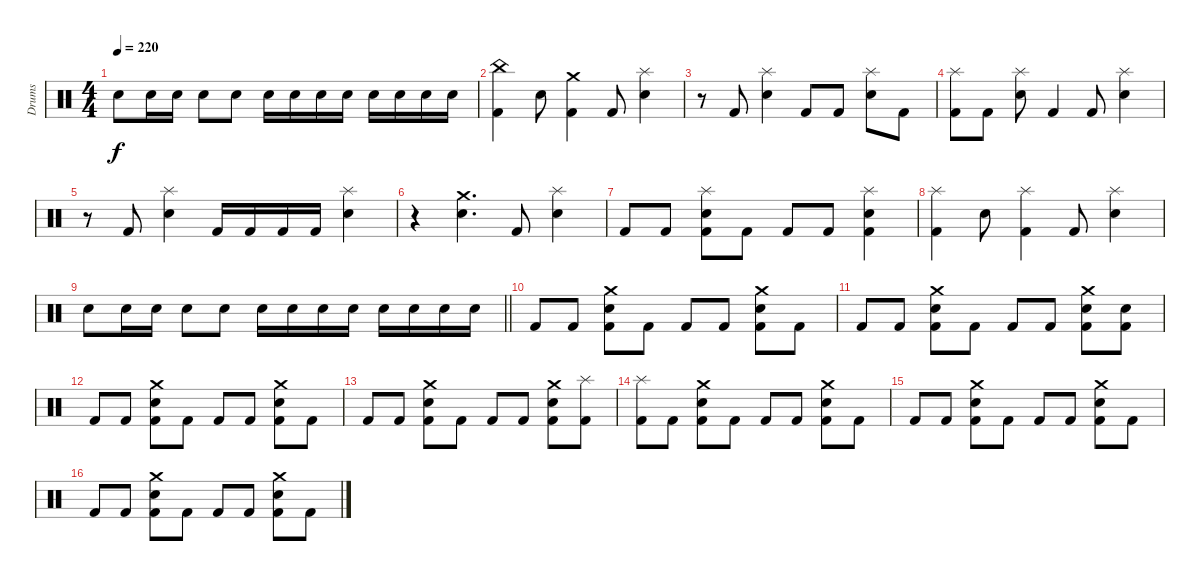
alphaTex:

\track ("Drums" "Drums") {instrument percussion}
\staff {score}
\articulation defaults
\ts (4 4)
\tempo 220
\clef neutral
\ks c "Electric Snare (hit)".8{dy f} "Electric Snare (hit)".16 "Electric Snare (hit)".16 "Electric Snare (hit)".8 "Electric Snare (hit)".8 "Electric Snare (hit)".16 "Electric Snare (hit)".16 "Electric Snare (hit)".16 "Electric Snare (hit)".16 "Electric Snare (hit)".16 "Electric Snare (hit)".16 "Electric Snare (hit)".16 "Electric Snare (hit)".16
|
("China (hit)" "Kick (hit) 2").4 "Electric Snare (hit)".8 ("Crash medium (hit)" "Kick (hit) 2").4 "Kick (hit) 2".8 ("Splash (hit)" "Electric Snare (hit)").4 |
r.8 "Kick (hit) 2".8 ("Splash (hit)" "Electric Snare (hit)").4 "Kick (hit) 2".8 "Kick (hit) 2".8 ("Splash (hit)" "Electric Snare (hit)").8 "Kick (hit) 2".8 |
("Splash (hit)" "Kick (hit) 2").8 "Kick (hit) 2".8 ("Splash (hit)" "Electric Snare (hit)").8 "Kick (hit) 2".4 "Kick (hit) 2".8 ("Splash (hit)" "Electric Snare (hit)").4 |
r.8 "Kick (hit) 2".8 ("Splash (hit)" "Electric Snare (hit)").4 "Kick (hit) 2".16 "Kick (hit) 2".16 "Kick (hit) 2".16 "Kick (hit) 2".16 ("Splash (hit)" "Electric Snare (hit)").4 |
r.4{volume 0} ("Crash medium (hit)" "Electric Snare (hit)").4{d volume 16} "Kick (hit) 2".8 ("Splash (hit)" "Electric Snare (hit)").4 |
"Kick (hit) 2".8 "Kick (hit) 2".8 ("Splash (hit)" "Electric Snare (hit)" "Kick (hit) 2").8 "Kick (hit) 2".8 "Kick (hit) 2".8 "Kick (hit) 2".8 ("Splash (hit)" "Electric Snare (hit)" "Kick (hit) 2").4 |
("Splash (hit)" "Kick (hit) 2").4 "Electric Snare (hit)".8 ("Splash (hit)" "Kick (hit) 2").4 "Kick (hit) 2".8 ("Splash (hit)" "Electric Snare (hit)").4 |
\barLineRight lightlight "Electric Snare (hit)".8 "Electric Snare (hit)".16 "Electric Snare (hit)".16 "Electric Snare (hit)".8 "Electric Snare (hit)".8 "Electric Snare (hit)".16 "Electric Snare (hit)".16 "Electric Snare (hit)".16 "Electric Snare (hit)".16 "Electric Snare (hit)".16 "Electric Snare (hit)".16 "Electric Snare (hit)".16 "Electric Snare (hit)".16
|
\section ("" "")
"Kick (hit) 2".8 "Kick (hit) 2".8 ("Crash medium (hit)" "Electric Snare (hit)" "Kick (hit) 2").8 "Kick (hit) 2".8 "Kick (hit) 2".8 "Kick (hit) 2".8 ("Crash medium (hit)" "Electric Snare (hit)" "Kick (hit) 2").8 "Kick (hit) 2".8 |
"Kick (hit) 2".8 "Kick (hit) 2".8 ("Crash medium (hit)" "Electric Snare (hit)" "Kick (hit) 2").8 "Kick (hit) 2".8 "Kick (hit) 2".8 "Kick (hit) 2".8 ("Crash medium (hit)" "Electric Snare (hit)" "Kick (hit) 2").8 ("Electric Snare (hit)" "Kick (hit) 2").8 |
"Kick (hit) 2".8 "Kick (hit) 2".8 ("Crash medium (hit)" "Electric Snare (hit)" "Kick (hit) 2").8 "Kick (hit) 2".8 "Kick (hit) 2".8 "Kick (hit) 2".8 ("Crash medium (hit)" "Electric Snare (hit)" "Kick (hit) 2").8 "Kick (hit) 2".8 |
"Kick (hit) 2".8 "Kick (hit) 2".8 ("Crash medium (hit)" "Electric Snare (hit)" "Kick (hit) 2").8 "Kick (hit) 2".8 "Kick (hit) 2".8 "Kick (hit) 2".8 ("Crash medium (hit)" "Electric Snare (hit)" "Kick (hit) 2").8 ("Splash (hit)" "Kick (hit) 2").8 |
("Splash (hit)" "Kick (hit) 2").8 "Kick (hit) 2".8 ("Crash medium (hit)" "Electric Snare (hit)" "Kick (hit) 2").8 "Kick (hit) 2".8 "Kick (hit) 2".8 "Kick (hit) 2".8 ("Crash medium (hit)" "Electric Snare (hit)" "Kick (hit) 2").8 "Kick (hit) 2".8 |
"Kick (hit) 2".8 "Kick (hit) 2".8 ("Crash medium (hit)" "Electric Snare (hit)" "Kick (hit) 2").8 "Kick (hit) 2".8 "Kick (hit) 2".8 "Kick (hit) 2".8 ("Crash medium (hit)" "Electric Snare (hit)" "Kick (hit) 2").8 "Kick (hit) 2".8 |
"Kick (hit) 2".8 "Kick (hit) 2".8 ("Crash medium (hit)" "Electric Snare (hit)" "Kick (hit) 2").8 "Kick (hit) 2".8 "Kick (hit) 2".8 "Kick (hit) 2".8 ("Crash medium (hit)" "Electric Snare (hit)" "Kick (hit) 2").8 "Kick (hit) 2".8
